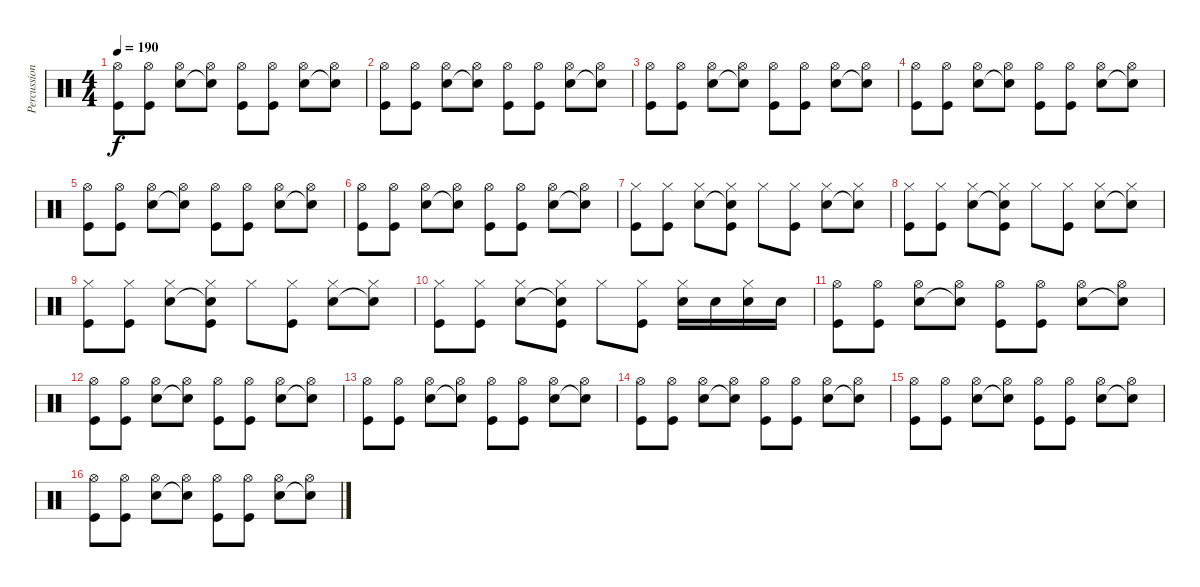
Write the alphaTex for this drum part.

\track ("Percussions" "Percussion") {instrument percussion}
\staff {score}
\articulation defaults
\ts (4 4)
\tempo 190
\clef neutral
\ks c
("Hi-Hat (open)" "Kick (hit)").8{dy f} ("Hi-Hat (open)" "Kick (hit)").8 ("Hi-Hat (open)" "Electric Snare (hit)").8 ("Hi-Hat (open)" "Snare (hit)"{t}).8 ("Hi-Hat (open)" "Kick (hit)").8 ("Hi-Hat (open)" "Kick (hit)").8 ("Hi-Hat (open)" "Electric Snare (hit)").8 ("Hi-Hat (open)" "Snare (hit)"{t}).8 |
("Hi-Hat (open)" "Kick (hit)").8 ("Hi-Hat (open)" "Kick (hit)").8 ("Hi-Hat (open)" "Electric Snare (hit)").8 ("Hi-Hat (open)" "Snare (hit)"{t}).8 ("Hi-Hat (open)" "Kick (hit)").8 ("Hi-Hat (open)" "Kick (hit)").8 ("Hi-Hat (open)" "Electric Snare (hit)").8 ("Hi-Hat (open)" "Snare (hit)"{t}).8 |
("Hi-Hat (open)" "Kick (hit)").8 ("Hi-Hat (open)" "Kick (hit)").8 ("Hi-Hat (open)" "Electric Snare (hit)").8 ("Hi-Hat (open)" "Snare (hit)"{t}).8 ("Hi-Hat (open)" "Kick (hit)").8 ("Hi-Hat (open)" "Kick (hit)").8 ("Hi-Hat (open)" "Electric Snare (hit)").8 ("Hi-Hat (open)" "Snare (hit)"{t}).8 |
("Hi-Hat (open)" "Kick (hit)").8 ("Hi-Hat (open)" "Kick (hit)").8 ("Hi-Hat (open)" "Electric Snare (hit)").8 ("Hi-Hat (open)" "Snare (hit)"{t}).8 ("Hi-Hat (open)" "Kick (hit)").8 ("Hi-Hat (open)" "Kick (hit)").8 ("Hi-Hat (open)" "Electric Snare (hit)").8 ("Hi-Hat (open)" "Snare (hit)"{t}).8 |
("Hi-Hat (open)" "Kick (hit)").8 ("Hi-Hat (open)" "Kick (hit)").8 ("Hi-Hat (open)" "Electric Snare (hit)").8 ("Hi-Hat (open)" "Snare (hit)"{t}).8 ("Hi-Hat (open)" "Kick (hit)").8 ("Hi-Hat (open)" "Kick (hit)").8 ("Hi-Hat (open)" "Electric Snare (hit)").8 ("Hi-Hat (open)" "Snare (hit)"{t}).8 |
("Hi-Hat (open)" "Kick (hit)").8 ("Hi-Hat (open)" "Kick (hit)").8 ("Hi-Hat (open)" "Electric Snare (hit)").8 ("Hi-Hat (open)" "Snare (hit)"{t}).8 ("Hi-Hat (open)" "Kick (hit)").8 ("Hi-Hat (open)" "Kick (hit)").8 ("Hi-Hat (open)" "Electric Snare (hit)").8 ("Hi-Hat (open)" "Snare (hit)"{t}).8 |
("Hi-Hat (closed)" "Kick (hit)").8 ("Hi-Hat (closed)" "Kick (hit)").8 ("Hi-Hat (closed)" "Electric Snare (hit)").8 ("Hi-Hat (closed)" "Snare (hit)"{t} "Kick (hit)").8 "Hi-Hat (closed)".8 ("Hi-Hat (closed)" "Kick (hit)").8 ("Hi-Hat (closed)" "Electric Snare (hit)").8 ("Hi-Hat (closed)" "Snare (hit)"{t}).8 |
("Hi-Hat (closed)" "Kick (hit)").8 ("Hi-Hat (closed)" "Kick (hit)").8 ("Hi-Hat (closed)" "Electric Snare (hit)").8 ("Hi-Hat (closed)" "Snare (hit)"{t} "Kick (hit)").8 "Hi-Hat (closed)".8 ("Hi-Hat (closed)" "Kick (hit)").8 ("Hi-Hat (closed)" "Electric Snare (hit)").8 ("Hi-Hat (closed)" "Snare (hit)"{t}).8 |
("Hi-Hat (closed)" "Kick (hit)").8 ("Hi-Hat (closed)" "Kick (hit)").8 ("Hi-Hat (closed)" "Electric Snare (hit)").8 ("Hi-Hat (closed)" "Snare (hit)"{t} "Kick (hit)").8 "Hi-Hat (closed)".8 ("Hi-Hat (closed)" "Kick (hit)").8 ("Hi-Hat (closed)" "Electric Snare (hit)").8 ("Hi-Hat (closed)" "Snare (hit)"{t}).8 |
("Hi-Hat (closed)" "Kick (hit)").8 ("Hi-Hat (closed)" "Kick (hit)").8 ("Hi-Hat (closed)" "Electric Snare (hit)").8 ("Hi-Hat (closed)" "Snare (hit)"{t} "Kick (hit)").8 "Hi-Hat (closed)".8 ("Hi-Hat (closed)" "Kick (hit)").8 ("Hi-Hat (closed)" "Electric Snare (hit)").16 "Electric Snare (hit)".16 ("Hi-Hat (closed)" "Electric Snare (hit)").16 "Electric Snare (hit)".16 |
("Hi-Hat (open)" "Kick (hit)").8 ("Hi-Hat (open)" "Kick (hit)").8 ("Hi-Hat (open)" "Electric Snare (hit)").8 ("Hi-Hat (open)" "Snare (hit)"{t}).8 ("Hi-Hat (open)" "Kick (hit)").8 ("Hi-Hat (open)" "Kick (hit)").8 ("Hi-Hat (open)" "Electric Snare (hit)").8 ("Hi-Hat (open)" "Snare (hit)"{t}).8 |
("Hi-Hat (open)" "Kick (hit)").8 ("Hi-Hat (open)" "Kick (hit)").8 ("Hi-Hat (open)" "Electric Snare (hit)").8 ("Hi-Hat (open)" "Snare (hit)"{t}).8 ("Hi-Hat (open)" "Kick (hit)").8 ("Hi-Hat (open)" "Kick (hit)").8 ("Hi-Hat (open)" "Electric Snare (hit)").8 ("Hi-Hat (open)" "Snare (hit)"{t}).8 |
("Hi-Hat (open)" "Kick (hit)").8 ("Hi-Hat (open)" "Kick (hit)").8 ("Hi-Hat (open)" "Electric Snare (hit)").8 ("Hi-Hat (open)" "Snare (hit)"{t}).8 ("Hi-Hat (open)" "Kick (hit)").8 ("Hi-Hat (open)" "Kick (hit)").8 ("Hi-Hat (open)" "Electric Snare (hit)").8 ("Hi-Hat (open)" "Snare (hit)"{t}).8 |
("Hi-Hat (open)" "Kick (hit)").8 ("Hi-Hat (open)" "Kick (hit)").8 ("Hi-Hat (open)" "Electric Snare (hit)").8 ("Hi-Hat (open)" "Snare (hit)"{t}).8 ("Hi-Hat (open)" "Kick (hit)").8 ("Hi-Hat (open)" "Kick (hit)").8 ("Hi-Hat (open)" "Electric Snare (hit)").8 ("Hi-Hat (open)" "Snare (hit)"{t}).8 |
("Hi-Hat (open)" "Kick (hit)").8 ("Hi-Hat (open)" "Kick (hit)").8 ("Hi-Hat (open)" "Electric Snare (hit)").8 ("Hi-Hat (open)" "Snare (hit)"{t}).8 ("Hi-Hat (open)" "Kick (hit)").8 ("Hi-Hat (open)" "Kick (hit)").8 ("Hi-Hat (open)" "Electric Snare (hit)").8 ("Hi-Hat (open)" "Snare (hit)"{t}).8 |
("Hi-Hat (open)" "Kick (hit)").8 ("Hi-Hat (open)" "Kick (hit)").8 ("Hi-Hat (open)" "Electric Snare (hit)").8 ("Hi-Hat (open)" "Snare (hit)"{t}).8 ("Hi-Hat (open)" "Kick (hit)").8 ("Hi-Hat (open)" "Kick (hit)").8 ("Hi-Hat (open)" "Electric Snare (hit)").8 ("Hi-Hat (open)" "Snare (hit)"{t}).8
